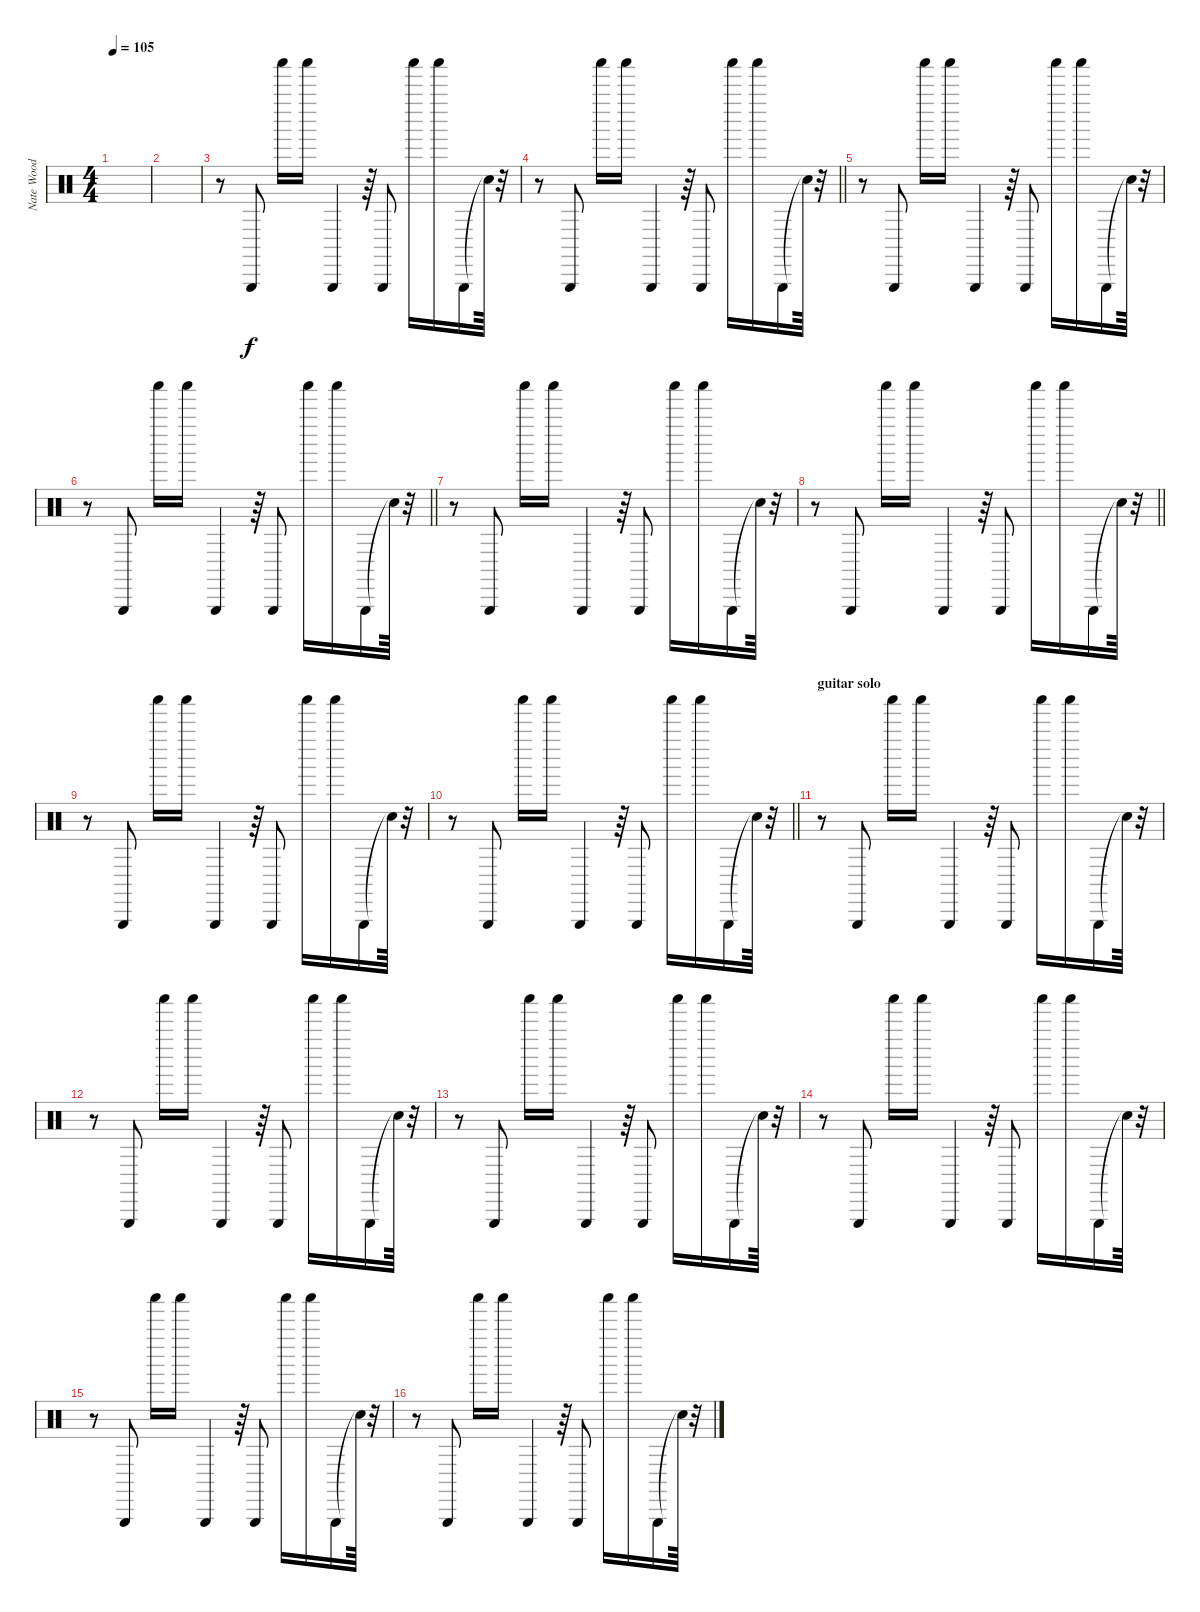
\track ("Nate Wood " "Nate Wood ") {instrument percussion}
\staff {score}
\articulation defaults
\ts (4 4)
\tempo 105
\clef neutral
\ks c
|
|
r.8 "Triangle (hit)".8 "Shaker (hit)".16 "Shaker (hit)".16 "Triangle (hit)".4 r.64 "Triangle (hit)".8 "Shaker (hit)".16 "Shaker (hit)".16 "Triangle (hit)".16 "Snare (hit)"{t}.64 r.32 |
\barLineRight lightlight
r.8 "Triangle (hit)".8 "Shaker (hit)".16 "Shaker (hit)".16 "Triangle (hit)".4 r.64 "Triangle (hit)".8 "Shaker (hit)".16 "Shaker (hit)".16 "Triangle (hit)".16 "Snare (hit)"{t}.64 r.32 |
r.8 "Triangle (hit)".8 "Shaker (hit)".16 "Shaker (hit)".16 "Triangle (hit)".4 r.64 "Triangle (hit)".8 "Shaker (hit)".16 "Shaker (hit)".16 "Triangle (hit)".16 "Snare (hit)"{t}.64 r.32 |
\barLineRight lightlight
r.8 "Triangle (hit)".8 "Shaker (hit)".16 "Shaker (hit)".16 "Triangle (hit)".4 r.64 "Triangle (hit)".8 "Shaker (hit)".16 "Shaker (hit)".16 "Triangle (hit)".16 "Snare (hit)"{t}.64 r.32 |
r.8 "Triangle (hit)".8 "Shaker (hit)".16 "Shaker (hit)".16 "Triangle (hit)".4 r.64 "Triangle (hit)".8 "Shaker (hit)".16 "Shaker (hit)".16 "Triangle (hit)".16 "Snare (hit)"{t}.64 r.32 |
\barLineRight lightlight
r.8 "Triangle (hit)".8 "Shaker (hit)".16 "Shaker (hit)".16 "Triangle (hit)".4 r.64 "Triangle (hit)".8 "Shaker (hit)".16 "Shaker (hit)".16 "Triangle (hit)".16 "Snare (hit)"{t}.64 r.32 |
r.8 "Triangle (hit)".8 "Shaker (hit)".16 "Shaker (hit)".16 "Triangle (hit)".4 r.64 "Triangle (hit)".8 "Shaker (hit)".16 "Shaker (hit)".16 "Triangle (hit)".16 "Snare (hit)"{t}.64 r.32 |
\barLineRight lightlight
r.8 "Triangle (hit)".8 "Shaker (hit)".16 "Shaker (hit)".16 "Triangle (hit)".4 r.64 "Triangle (hit)".8 "Shaker (hit)".16 "Shaker (hit)".16 "Triangle (hit)".16 "Snare (hit)"{t}.64 r.32 |
\section ("" "guitar solo")
r.8 "Triangle (hit)".8 "Shaker (hit)".16 "Shaker (hit)".16 "Triangle (hit)".4 r.64 "Triangle (hit)".8 "Shaker (hit)".16 "Shaker (hit)".16 "Triangle (hit)".16 "Snare (hit)"{t}.64 r.32 |
r.8 "Triangle (hit)".8 "Shaker (hit)".16 "Shaker (hit)".16 "Triangle (hit)".4 r.64 "Triangle (hit)".8 "Shaker (hit)".16 "Shaker (hit)".16 "Triangle (hit)".16 "Snare (hit)"{t}.64 r.32 |
r.8 "Triangle (hit)".8 "Shaker (hit)".16 "Shaker (hit)".16 "Triangle (hit)".4 r.64 "Triangle (hit)".8 "Shaker (hit)".16 "Shaker (hit)".16 "Triangle (hit)".16 "Snare (hit)"{t}.64 r.32 |
r.8 "Triangle (hit)".8 "Shaker (hit)".16 "Shaker (hit)".16 "Triangle (hit)".4 r.64 "Triangle (hit)".8 "Shaker (hit)".16 "Shaker (hit)".16 "Triangle (hit)".16 "Snare (hit)"{t}.64 r.32 |
r.8 "Triangle (hit)".8 "Shaker (hit)".16 "Shaker (hit)".16 "Triangle (hit)".4 r.64 "Triangle (hit)".8 "Shaker (hit)".16 "Shaker (hit)".16 "Triangle (hit)".16 "Snare (hit)"{t}.64 r.32 |
r.8 "Triangle (hit)".8 "Shaker (hit)".16 "Shaker (hit)".16 "Triangle (hit)".4 r.64 "Triangle (hit)".8 "Shaker (hit)".16 "Shaker (hit)".16 "Triangle (hit)".16 "Snare (hit)"{t}.64 r.32
